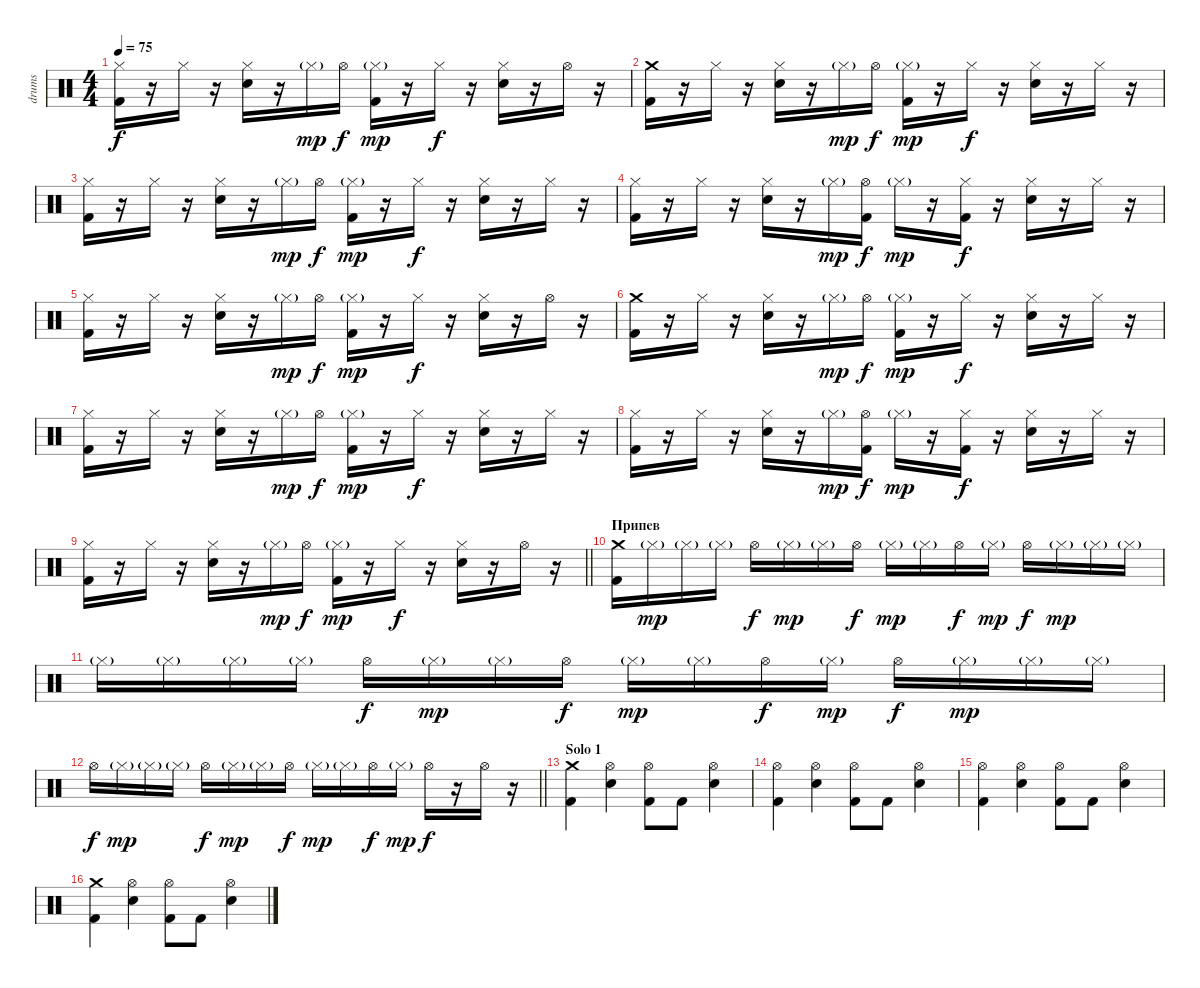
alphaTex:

\track ("drums" "drums") {instrument percussion}
\staff {score}
\articulation defaults
\ts (4 4)
\tempo 75
\clef neutral
\ks c
("Hi-Hat (closed)" "Kick (hit) 2").16{dy f} r.16 "Hi-Hat (closed)".16 r.16 ("Hi-Hat (closed)" "Snare (hit) 2").16 r.16 "Hi-Hat (closed)"{g}.16{dy mp} "Hi-Hat (open)".16{dy f} ("Hi-Hat (closed)"{g} "Kick (hit) 2").16{dy mp} r.16 "Hi-Hat (closed)".16{dy f} r.16 ("Hi-Hat (closed)" "Snare (hit) 2").16 r.16 "Hi-Hat (open)".16 r.16 |
("Crash medium (hit)" "Kick (hit) 2").16 r.16 "Hi-Hat (closed)".16 r.16 ("Hi-Hat (closed)" "Snare (hit) 2").16 r.16 "Hi-Hat (closed)"{g}.16{dy mp} "Hi-Hat (open)".16{dy f} ("Hi-Hat (closed)"{g} "Kick (hit) 2").16{dy mp} r.16 "Hi-Hat (closed)".16{dy f} r.16 ("Hi-Hat (closed)" "Snare (hit) 2").16 r.16 "Hi-Hat (closed)".16 r.16 |
("Hi-Hat (closed)" "Kick (hit) 2").16 r.16 "Hi-Hat (closed)".16 r.16 ("Hi-Hat (closed)" "Snare (hit) 2").16 r.16 "Hi-Hat (closed)"{g}.16{dy mp} "Hi-Hat (open)".16{dy f} ("Hi-Hat (closed)"{g} "Kick (hit) 2").16{dy mp} r.16 "Hi-Hat (closed)".16{dy f} r.16 ("Hi-Hat (closed)" "Snare (hit) 2").16 r.16 "Hi-Hat (closed)".16 r.16 |
("Hi-Hat (closed)" "Kick (hit) 2").16 r.16 "Hi-Hat (closed)".16 r.16 ("Hi-Hat (closed)" "Snare (hit) 2").16 r.16 "Hi-Hat (closed)"{g}.16{dy mp} ("Hi-Hat (open)" "Kick (hit) 2").16{dy f} "Hi-Hat (closed)"{g}.16{dy mp} r.16 ("Hi-Hat (closed)" "Kick (hit) 2").16{dy f} r.16 ("Hi-Hat (closed)" "Snare (hit) 2").16 r.16 "Hi-Hat (closed)".16 r.16 |
("Hi-Hat (closed)" "Kick (hit) 2").16 r.16 "Hi-Hat (closed)".16 r.16 ("Hi-Hat (closed)" "Snare (hit) 2").16 r.16 "Hi-Hat (closed)"{g}.16{dy mp} "Hi-Hat (open)".16{dy f} ("Hi-Hat (closed)"{g} "Kick (hit) 2").16{dy mp} r.16 "Hi-Hat (closed)".16{dy f} r.16 ("Hi-Hat (closed)" "Snare (hit) 2").16 r.16 "Hi-Hat (open)".16 r.16 |
("Crash medium (hit)" "Kick (hit) 2").16 r.16 "Hi-Hat (closed)".16 r.16 ("Hi-Hat (closed)" "Snare (hit) 2").16 r.16 "Hi-Hat (closed)"{g}.16{dy mp} "Hi-Hat (open)".16{dy f} ("Hi-Hat (closed)"{g} "Kick (hit) 2").16{dy mp} r.16 "Hi-Hat (closed)".16{dy f} r.16 ("Hi-Hat (closed)" "Snare (hit) 2").16 r.16 "Hi-Hat (closed)".16 r.16 |
("Hi-Hat (closed)" "Kick (hit) 2").16 r.16 "Hi-Hat (closed)".16 r.16 ("Hi-Hat (closed)" "Snare (hit) 2").16 r.16 "Hi-Hat (closed)"{g}.16{dy mp} "Hi-Hat (open)".16{dy f} ("Hi-Hat (closed)"{g} "Kick (hit) 2").16{dy mp} r.16 "Hi-Hat (closed)".16{dy f} r.16 ("Hi-Hat (closed)" "Snare (hit) 2").16 r.16 "Hi-Hat (closed)".16 r.16 |
("Hi-Hat (closed)" "Kick (hit) 2").16 r.16 "Hi-Hat (closed)".16 r.16 ("Hi-Hat (closed)" "Snare (hit) 2").16 r.16 "Hi-Hat (closed)"{g}.16{dy mp} ("Hi-Hat (open)" "Kick (hit) 2").16{dy f} "Hi-Hat (closed)"{g}.16{dy mp} r.16 ("Hi-Hat (closed)" "Kick (hit) 2").16{dy f} r.16 ("Hi-Hat (closed)" "Snare (hit) 2").16 r.16 "Hi-Hat (closed)".16 r.16 |
\barLineRight lightlight
("Hi-Hat (closed)" "Kick (hit) 2").16 r.16 "Hi-Hat (closed)".16 r.16 ("Hi-Hat (closed)" "Snare (hit) 2").16 r.16 "Hi-Hat (closed)"{g}.16{dy mp} "Hi-Hat (open)".16{dy f} ("Hi-Hat (closed)"{g} "Kick (hit) 2").16{dy mp} r.16 "Hi-Hat (closed)".16{dy f} r.16 ("Hi-Hat (closed)" "Snare (hit) 2").16 r.16 "Hi-Hat (open)".16 r.16 |
\section ("" "Припев")
("Crash medium (hit)" "Kick (hit) 2").16 "Hi-Hat (closed)"{g}.16{dy mp} "Hi-Hat (closed)"{g}.16 "Hi-Hat (closed)"{g}.16 "Hi-Hat (open)".16{dy f} "Hi-Hat (closed)"{g}.16{dy mp} "Hi-Hat (closed)"{g}.16 "Hi-Hat (open)".16{dy f} "Hi-Hat (closed)"{g}.16{dy mp} "Hi-Hat (closed)"{g}.16 "Hi-Hat (open)".16{dy f} "Hi-Hat (closed)"{g}.16{dy mp} "Hi-Hat (open)".16{dy f} "Hi-Hat (closed)"{g}.16{dy mp} "Hi-Hat (closed)"{g}.16 "Hi-Hat (closed)"{g}.16 |
"Hi-Hat (closed)"{g}.16 "Hi-Hat (closed)"{g}.16 "Hi-Hat (closed)"{g}.16 "Hi-Hat (closed)"{g}.16 "Hi-Hat (open)".16{dy f} "Hi-Hat (closed)"{g}.16{dy mp} "Hi-Hat (closed)"{g}.16 "Hi-Hat (open)".16{dy f} "Hi-Hat (closed)"{g}.16{dy mp} "Hi-Hat (closed)"{g}.16 "Hi-Hat (open)".16{dy f} "Hi-Hat (closed)"{g}.16{dy mp} "Hi-Hat (open)".16{dy f} "Hi-Hat (closed)"{g}.16{dy mp} "Hi-Hat (closed)"{g}.16 "Hi-Hat (closed)"{g}.16 |
\barLineRight lightlight "Hi-Hat (open)".16{dy f} "Hi-Hat (closed)"{g}.16{dy mp} "Hi-Hat (closed)"{g}.16 "Hi-Hat (closed)"{g}.16 "Hi-Hat (open)".16{dy f} "Hi-Hat (closed)"{g}.16{dy mp} "Hi-Hat (closed)"{g}.16 "Hi-Hat (open)".16{dy f} "Hi-Hat (closed)"{g}.16{dy mp} "Hi-Hat (closed)"{g}.16 "Hi-Hat (open)".16{dy f} "Hi-Hat (closed)"{g}.16{dy mp} "Hi-Hat (open)".16{dy f}
r.16 "Hi-Hat (open)".16 r.16 |
\section ("" "Solo 1")
("Crash medium (hit)" "Kick (hit) 2").4 ("Hi-Hat (open)" "Snare (hit) 2").4 ("Hi-Hat (open)" "Kick (hit) 2").8 "Kick (hit) 2".8 ("Hi-Hat (open)" "Snare (hit) 2").4 |
("Hi-Hat (open)" "Kick (hit) 2").4 ("Hi-Hat (open)" "Snare (hit) 2").4 ("Hi-Hat (open)" "Kick (hit) 2").8 "Kick (hit) 2".8 ("Hi-Hat (open)" "Snare (hit) 2").4 |
("Hi-Hat (open)" "Kick (hit) 2").4 ("Hi-Hat (open)" "Snare (hit) 2").4 ("Hi-Hat (open)" "Kick (hit) 2").8 "Kick (hit) 2".8 ("Hi-Hat (open)" "Snare (hit) 2").4 |
("Crash medium (hit)" "Kick (hit) 2").4 ("Hi-Hat (open)" "Snare (hit) 2").4 ("Hi-Hat (open)" "Kick (hit) 2").8 "Kick (hit) 2".8 ("Hi-Hat (open)" "Snare (hit) 2").4
